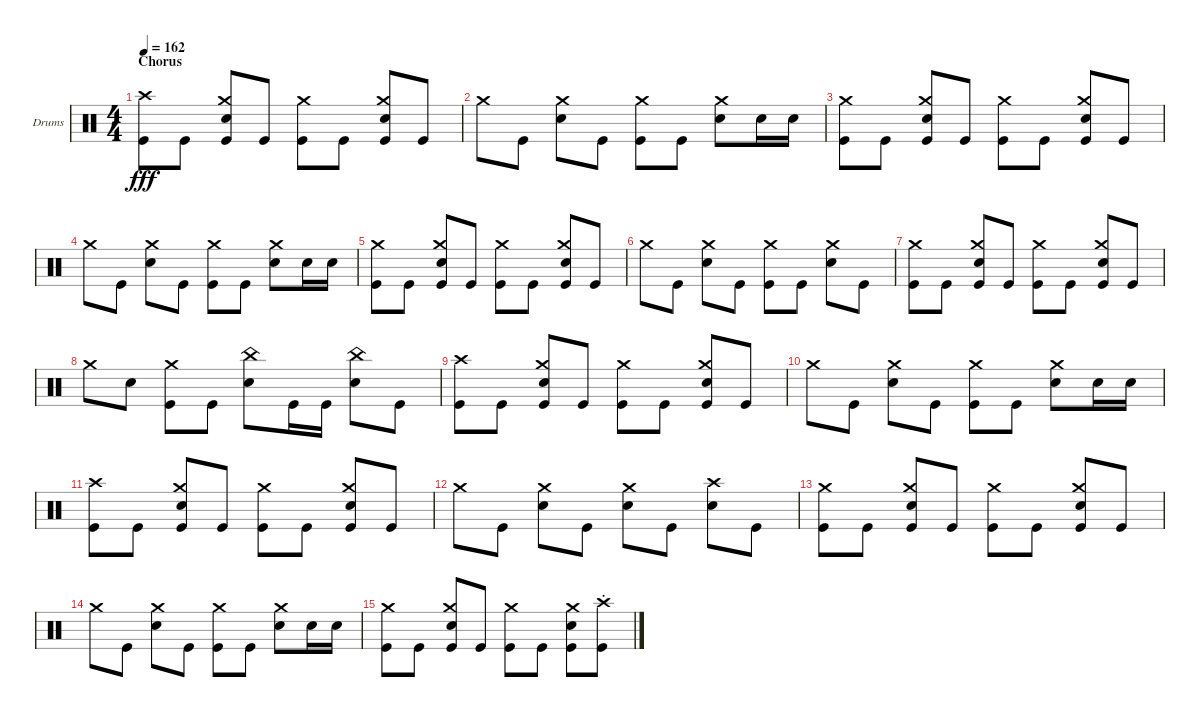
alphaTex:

\bracketExtendMode groupsimilarinstruments
\firstSystemTrackNameOrientation horizontal
\otherSystemsTrackNameOrientation horizontal
\track ("Drumkit" "Drums") {instrument percussion}
\staff {score}
\articulation defaults
\ts (4 4)
\section ("" "Chorus")
\tempo 162
\clef neutral
\ks c
("Kick (hit)" "Crash high (hit)").8{dy fff} "Kick (hit)".8 ("Crash medium (hit)" "Snare (hit) 2" "Kick (hit)").8 "Kick (hit)".8 ("Crash medium (hit)" "Kick (hit)").8 "Kick (hit)".8 ("Crash medium (hit)" "Snare (hit) 2" "Kick (hit)").8 "Kick (hit)".8 |
"Crash medium (hit)".8 "Kick (hit)".8 ("Snare (hit) 2" "Crash medium (hit)").8 "Kick (hit)".8 ("Crash medium (hit)" "Kick (hit)").8 "Kick (hit)".8 ("Snare (hit) 2" "Crash medium (hit)").8 "Snare (hit) 2".16 "Snare (hit) 2".16 |
("Kick (hit)" "Crash medium (hit)").8 "Kick (hit)".8 ("Crash medium (hit)" "Snare (hit) 2" "Kick (hit)").8 "Kick (hit)".8 ("Crash medium (hit)" "Kick (hit)").8 "Kick (hit)".8 ("Crash medium (hit)" "Snare (hit) 2" "Kick (hit)").8 "Kick (hit)".8 |
"Crash medium (hit)".8 "Kick (hit)".8 ("Snare (hit) 2" "Crash medium (hit)").8 "Kick (hit)".8 ("Crash medium (hit)" "Kick (hit)").8 "Kick (hit)".8 ("Snare (hit) 2" "Crash medium (hit)").8 "Snare (hit) 2".16 "Snare (hit) 2".16 |
("Kick (hit)" "Crash medium (hit)").8 "Kick (hit)".8 ("Crash medium (hit)" "Snare (hit) 2" "Kick (hit)").8 "Kick (hit)".8 ("Crash medium (hit)" "Kick (hit)").8 "Kick (hit)".8 ("Crash medium (hit)" "Snare (hit) 2" "Kick (hit)").8 "Kick (hit)".8 |
"Crash medium (hit)".8 "Kick (hit)".8 ("Snare (hit) 2" "Crash medium (hit)").8 "Kick (hit)".8 ("Crash medium (hit)" "Kick (hit)").8 "Kick (hit)".8 ("Snare (hit) 2" "Crash medium (hit)").8 "Kick (hit)".8 |
("Kick (hit)" "Crash medium (hit)").8 "Kick (hit)".8 ("Crash medium (hit)" "Snare (hit) 2" "Kick (hit)").8 "Kick (hit)".8 ("Crash medium (hit)" "Kick (hit)").8 "Kick (hit)".8 ("Crash medium (hit)" "Snare (hit) 2" "Kick (hit)").8 "Kick (hit)".8 |
"Crash medium (hit)".8 "Snare (hit) 2".8 ("Kick (hit)" "Crash medium (hit)").8 "Kick (hit)".8 ("Snare (hit) 2" "China (hit)").8 "Kick (hit)".16 "Kick (hit)".16 ("Snare (hit) 2" "China (hit)").8 "Kick (hit)".8 |
("Kick (hit)" "Crash high (hit)").8 "Kick (hit)".8 ("Crash medium (hit)" "Snare (hit) 2" "Kick (hit)").8 "Kick (hit)".8 ("Crash medium (hit)" "Kick (hit)").8 "Kick (hit)".8 ("Crash medium (hit)" "Snare (hit) 2" "Kick (hit)").8 "Kick (hit)".8 |
"Crash medium (hit)".8 "Kick (hit)".8 ("Snare (hit) 2" "Crash medium (hit)").8 "Kick (hit)".8 ("Crash medium (hit)" "Kick (hit)").8 "Kick (hit)".8 ("Snare (hit) 2" "Crash medium (hit)").8 "Snare (hit) 2".16 "Snare (hit) 2".16 |
("Kick (hit)" "Crash high (hit)").8 "Kick (hit)".8 ("Crash medium (hit)" "Snare (hit) 2" "Kick (hit)").8 "Kick (hit)".8 ("Crash medium (hit)" "Kick (hit)").8 "Kick (hit)".8 ("Crash medium (hit)" "Snare (hit) 2" "Kick (hit)").8 "Kick (hit)".8 |
"Crash medium (hit)".8 "Kick (hit)".8 ("Snare (hit) 2" "Crash medium (hit)").8 "Kick (hit)".8 ("Crash medium (hit)" "Snare (hit) 2").8 "Kick (hit)".8 ("Snare (hit) 2" "Crash high (hit)").8 "Kick (hit)".8 |
("Kick (hit)" "Crash medium (hit)").8 "Kick (hit)".8 ("Crash medium (hit)" "Snare (hit) 2" "Kick (hit)").8 "Kick (hit)".8 ("Crash medium (hit)" "Kick (hit)").8 "Kick (hit)".8 ("Crash medium (hit)" "Snare (hit) 2" "Kick (hit)").8 "Kick (hit)".8 |
"Crash medium (hit)".8 "Kick (hit)".8 ("Snare (hit) 2" "Crash medium (hit)").8 "Kick (hit)".8 ("Crash medium (hit)" "Kick (hit)").8 "Kick (hit)".8 ("Snare (hit) 2" "Crash medium (hit)").8 "Snare (hit) 2".16 "Snare (hit) 2".16 |
("Kick (hit)" "Crash medium (hit)").8 "Kick (hit)".8 ("Crash medium (hit)" "Snare (hit) 2" "Kick (hit)").8 "Kick (hit)".8 ("Crash medium (hit)" "Kick (hit)").8 "Kick (hit)".8 ("Crash medium (hit)" "Snare (hit) 2" "Kick (hit)").8 ("Kick (hit)"{st} "Crash high (hit)"{st}).8
